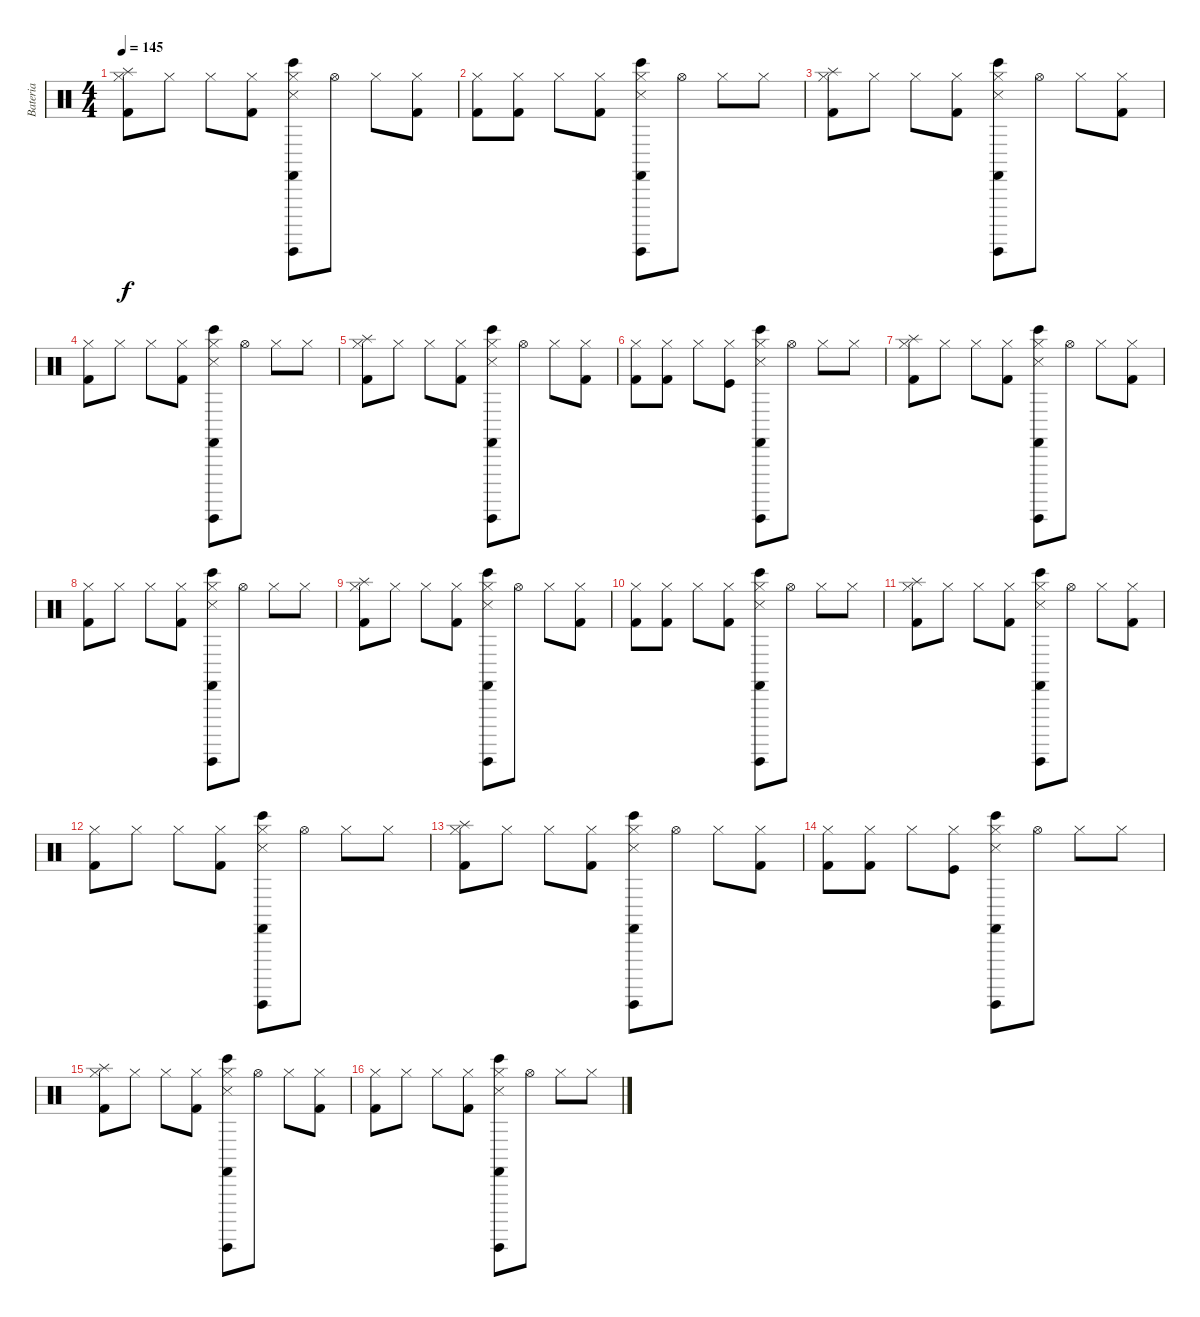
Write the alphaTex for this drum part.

\track ("Bateria" "Bateria") {instrument percussion}
\staff {score}
\articulation defaults
\ts (4 4)
\tempo 145
\clef neutral
\ks c
("Kick (hit) 2" "Hi-Hat (closed)" "Splash (hit)").8{dy f} "Hi-Hat (closed)".8 "Hi-Hat (closed)".8 ("Kick (hit) 2" "Hi-Hat (closed)").8 ("Snare (side stick) 3" "Hi-Hat (closed)" "Guiro (hit)" "Castanets (hit)" "Bongo High (hit)").8 "Hi-Hat (open)".8 "Hi-Hat (closed)".8 ("Kick (hit) 2" "Hi-Hat (closed)").8 |
("Kick (hit) 2" "Hi-Hat (closed)").8 ("Kick (hit) 2" "Hi-Hat (closed)").8 "Hi-Hat (closed)".8 ("Kick (hit) 2" "Hi-Hat (closed)").8 ("Snare (side stick) 3" "Hi-Hat (closed)" "Guiro (hit)" "Castanets (hit)" "Bongo High (hit)").8 "Hi-Hat (open)".8 "Hi-Hat (closed)".8 "Hi-Hat (closed)".8 |
("Kick (hit) 2" "Hi-Hat (closed)" "Splash (hit)").8 "Hi-Hat (closed)".8 "Hi-Hat (closed)".8 ("Kick (hit) 2" "Hi-Hat (closed)").8 ("Snare (side stick) 3" "Hi-Hat (closed)" "Guiro (hit)" "Castanets (hit)" "Bongo High (hit)").8 "Hi-Hat (open)".8 "Hi-Hat (closed)".8 ("Kick (hit) 2" "Hi-Hat (closed)").8 |
("Kick (hit) 2" "Hi-Hat (closed)").8 "Hi-Hat (closed)".8 "Hi-Hat (closed)".8 ("Kick (hit) 2" "Hi-Hat (closed)").8 ("Snare (side stick) 3" "Hi-Hat (closed)" "Guiro (hit)" "Castanets (hit)" "Bongo High (hit)").8 "Hi-Hat (open)".8 "Hi-Hat (closed)".8 "Hi-Hat (closed)".8 |
("Kick (hit) 2" "Hi-Hat (closed)" "Splash (hit)").8 "Hi-Hat (closed)".8 "Hi-Hat (closed)".8 ("Kick (hit) 2" "Hi-Hat (closed)").8 ("Snare (side stick) 3" "Hi-Hat (closed)" "Guiro (hit)" "Castanets (hit)" "Bongo High (hit)").8 "Hi-Hat (open)".8 "Hi-Hat (closed)".8 ("Kick (hit) 2" "Hi-Hat (closed)").8 |
("Kick (hit) 2" "Hi-Hat (closed)").8 ("Kick (hit) 2" "Hi-Hat (closed)").8 "Hi-Hat (closed)".8 ("Kick (hit)" "Hi-Hat (closed)").8 ("Snare (side stick) 3" "Hi-Hat (closed)" "Guiro (hit)" "Castanets (hit)" "Bongo High (hit)").8 "Hi-Hat (open)".8 "Hi-Hat (closed)".8 "Hi-Hat (closed)".8 |
("Kick (hit) 2" "Hi-Hat (closed)" "Splash (hit)").8 "Hi-Hat (closed)".8 "Hi-Hat (closed)".8 ("Kick (hit) 2" "Hi-Hat (closed)").8 ("Snare (side stick) 3" "Hi-Hat (closed)" "Guiro (hit)" "Castanets (hit)" "Bongo High (hit)").8 "Hi-Hat (open)".8 "Hi-Hat (closed)".8 ("Kick (hit) 2" "Hi-Hat (closed)").8 |
("Kick (hit) 2" "Hi-Hat (closed)").8 "Hi-Hat (closed)".8 "Hi-Hat (closed)".8 ("Kick (hit) 2" "Hi-Hat (closed)").8 ("Snare (side stick) 3" "Hi-Hat (closed)" "Guiro (hit)" "Castanets (hit)" "Bongo High (hit)").8 "Hi-Hat (open)".8 "Hi-Hat (closed)".8 "Hi-Hat (closed)".8 |
("Kick (hit) 2" "Hi-Hat (closed)" "Splash (hit)").8 "Hi-Hat (closed)".8 "Hi-Hat (closed)".8 ("Kick (hit) 2" "Hi-Hat (closed)").8 ("Snare (side stick) 3" "Hi-Hat (closed)" "Guiro (hit)" "Castanets (hit)" "Bongo High (hit)").8 "Hi-Hat (open)".8 "Hi-Hat (closed)".8 ("Kick (hit) 2" "Hi-Hat (closed)").8 |
("Kick (hit) 2" "Hi-Hat (closed)").8 ("Kick (hit) 2" "Hi-Hat (closed)").8 "Hi-Hat (closed)".8 ("Kick (hit) 2" "Hi-Hat (closed)").8 ("Snare (side stick) 3" "Hi-Hat (closed)" "Guiro (hit)" "Castanets (hit)" "Bongo High (hit)").8 "Hi-Hat (open)".8 "Hi-Hat (closed)".8 "Hi-Hat (closed)".8 |
("Kick (hit) 2" "Hi-Hat (closed)" "Splash (hit)").8 "Hi-Hat (closed)".8 "Hi-Hat (closed)".8 ("Kick (hit) 2" "Hi-Hat (closed)").8 ("Snare (side stick) 3" "Hi-Hat (closed)" "Guiro (hit)" "Castanets (hit)" "Bongo High (hit)").8 "Hi-Hat (open)".8 "Hi-Hat (closed)".8 ("Kick (hit) 2" "Hi-Hat (closed)").8 |
("Kick (hit) 2" "Hi-Hat (closed)").8 "Hi-Hat (closed)".8 "Hi-Hat (closed)".8 ("Kick (hit) 2" "Hi-Hat (closed)").8 ("Snare (side stick) 3" "Hi-Hat (closed)" "Guiro (hit)" "Castanets (hit)" "Bongo High (hit)").8 "Hi-Hat (open)".8 "Hi-Hat (closed)".8 "Hi-Hat (closed)".8 |
("Kick (hit) 2" "Hi-Hat (closed)" "Splash (hit)").8 "Hi-Hat (closed)".8 "Hi-Hat (closed)".8 ("Kick (hit) 2" "Hi-Hat (closed)").8 ("Snare (side stick) 3" "Hi-Hat (closed)" "Guiro (hit)" "Castanets (hit)" "Bongo High (hit)").8 "Hi-Hat (open)".8 "Hi-Hat (closed)".8 ("Kick (hit) 2" "Hi-Hat (closed)").8 |
("Kick (hit) 2" "Hi-Hat (closed)").8 ("Kick (hit) 2" "Hi-Hat (closed)").8 "Hi-Hat (closed)".8 ("Kick (hit)" "Hi-Hat (closed)").8 ("Snare (side stick) 3" "Hi-Hat (closed)" "Guiro (hit)" "Castanets (hit)" "Bongo High (hit)").8 "Hi-Hat (open)".8 "Hi-Hat (closed)".8 "Hi-Hat (closed)".8 |
("Kick (hit) 2" "Hi-Hat (closed)" "Splash (hit)").8 "Hi-Hat (closed)".8 "Hi-Hat (closed)".8 ("Kick (hit) 2" "Hi-Hat (closed)").8 ("Snare (side stick) 3" "Hi-Hat (closed)" "Guiro (hit)" "Castanets (hit)" "Bongo High (hit)").8 "Hi-Hat (open)".8 "Hi-Hat (closed)".8 ("Kick (hit) 2" "Hi-Hat (closed)").8 |
("Kick (hit) 2" "Hi-Hat (closed)").8 "Hi-Hat (closed)".8 "Hi-Hat (closed)".8 ("Kick (hit) 2" "Hi-Hat (closed)").8 ("Snare (side stick) 3" "Hi-Hat (closed)" "Guiro (hit)" "Castanets (hit)" "Bongo High (hit)").8 "Hi-Hat (open)".8 "Hi-Hat (closed)".8 "Hi-Hat (closed)".8
